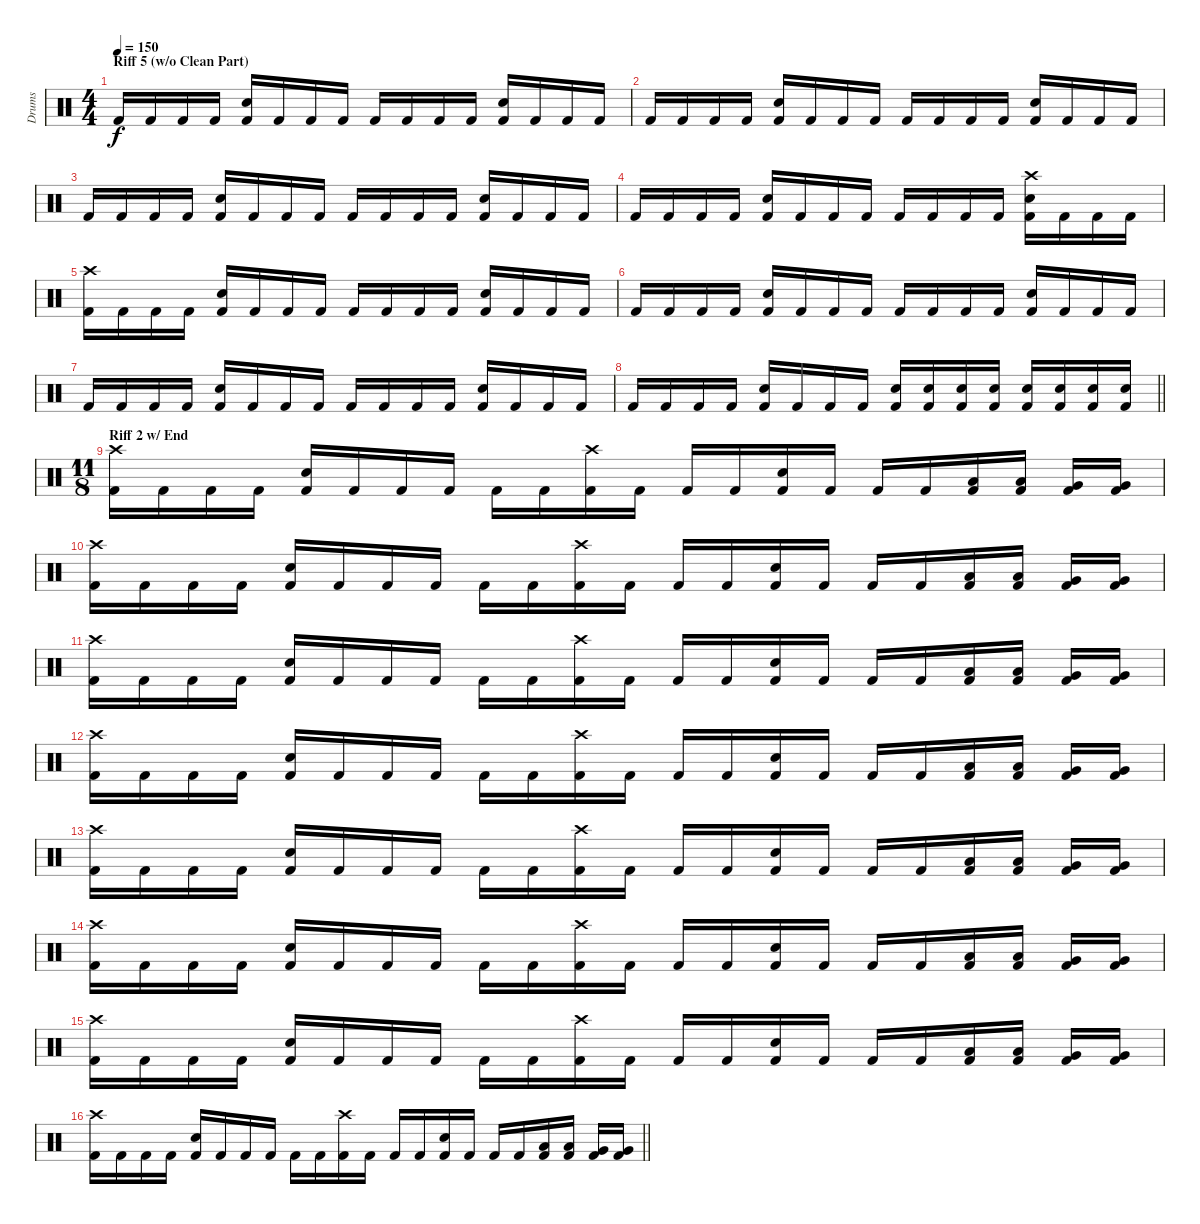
\track ("Drums" "Drums") {instrument percussion}
\staff {score}
\articulation defaults
\ts (4 4)
\section ("" "Riff 5 (w/o Clean Part)")
\tempo 150
\clef neutral
\ks c "Kick (hit) 2".16{dy f} "Kick (hit) 2".16 "Kick (hit) 2".16 "Kick (hit) 2".16
("Snare (hit) 2" "Kick (hit) 2").16 "Kick (hit) 2".16 "Kick (hit) 2".16 "Kick (hit) 2".16 "Kick (hit) 2".16 "Kick (hit) 2".16 "Kick (hit) 2".16 "Kick (hit) 2".16 ("Snare (hit) 2" "Kick (hit) 2").16 "Kick (hit) 2".16 "Kick (hit) 2".16 "Kick (hit) 2".16 |
"Kick (hit) 2".16 "Kick (hit) 2".16 "Kick (hit) 2".16 "Kick (hit) 2".16 ("Snare (hit) 2" "Kick (hit) 2").16 "Kick (hit) 2".16 "Kick (hit) 2".16 "Kick (hit) 2".16 "Kick (hit) 2".16 "Kick (hit) 2".16 "Kick (hit) 2".16 "Kick (hit) 2".16 ("Snare (hit) 2" "Kick (hit) 2").16 "Kick (hit) 2".16 "Kick (hit) 2".16 "Kick (hit) 2".16 |
"Kick (hit) 2".16 "Kick (hit) 2".16 "Kick (hit) 2".16 "Kick (hit) 2".16 ("Snare (hit) 2" "Kick (hit) 2").16 "Kick (hit) 2".16 "Kick (hit) 2".16 "Kick (hit) 2".16 "Kick (hit) 2".16 "Kick (hit) 2".16 "Kick (hit) 2".16 "Kick (hit) 2".16 ("Snare (hit) 2" "Kick (hit) 2").16 "Kick (hit) 2".16 "Kick (hit) 2".16 "Kick (hit) 2".16 |
"Kick (hit) 2".16 "Kick (hit) 2".16 "Kick (hit) 2".16 "Kick (hit) 2".16 ("Snare (hit) 2" "Kick (hit) 2").16 "Kick (hit) 2".16 "Kick (hit) 2".16 "Kick (hit) 2".16 "Kick (hit) 2".16 "Kick (hit) 2".16 "Kick (hit) 2".16 "Kick (hit) 2".16 ("Crash high (hit)" "Snare (hit) 2" "Kick (hit) 2").16 "Kick (hit) 2".16 "Kick (hit) 2".16 "Kick (hit) 2".16 |
("Crash high (hit)" "Kick (hit) 2").16 "Kick (hit) 2".16 "Kick (hit) 2".16 "Kick (hit) 2".16 ("Snare (hit) 2" "Kick (hit) 2").16 "Kick (hit) 2".16 "Kick (hit) 2".16 "Kick (hit) 2".16 "Kick (hit) 2".16 "Kick (hit) 2".16 "Kick (hit) 2".16 "Kick (hit) 2".16 ("Snare (hit) 2" "Kick (hit) 2").16 "Kick (hit) 2".16 "Kick (hit) 2".16 "Kick (hit) 2".16 |
"Kick (hit) 2".16 "Kick (hit) 2".16 "Kick (hit) 2".16 "Kick (hit) 2".16 ("Snare (hit) 2" "Kick (hit) 2").16 "Kick (hit) 2".16 "Kick (hit) 2".16 "Kick (hit) 2".16 "Kick (hit) 2".16 "Kick (hit) 2".16 "Kick (hit) 2".16 "Kick (hit) 2".16 ("Snare (hit) 2" "Kick (hit) 2").16 "Kick (hit) 2".16 "Kick (hit) 2".16 "Kick (hit) 2".16 |
"Kick (hit) 2".16 "Kick (hit) 2".16 "Kick (hit) 2".16 "Kick (hit) 2".16 ("Snare (hit) 2" "Kick (hit) 2").16 "Kick (hit) 2".16 "Kick (hit) 2".16 "Kick (hit) 2".16 "Kick (hit) 2".16 "Kick (hit) 2".16 "Kick (hit) 2".16 "Kick (hit) 2".16 ("Snare (hit) 2" "Kick (hit) 2").16 "Kick (hit) 2".16 "Kick (hit) 2".16 "Kick (hit) 2".16 |
\barLineRight lightlight "Kick (hit) 2".16 "Kick (hit) 2".16 "Kick (hit) 2".16 "Kick (hit) 2".16
("Snare (hit) 2" "Kick (hit) 2").16 "Kick (hit) 2".16 "Kick (hit) 2".16 "Kick (hit) 2".16 ("Snare (hit) 2" "Kick (hit) 2").16 ("Snare (hit) 2" "Kick (hit) 2").16 ("Snare (hit) 2" "Kick (hit) 2").16 ("Snare (hit) 2" "Kick (hit) 2").16 ("Snare (hit) 2" "Kick (hit) 2").16 ("Snare (hit) 2" "Kick (hit) 2").16 ("Snare (hit) 2" "Kick (hit) 2").16 ("Snare (hit) 2" "Kick (hit) 2").16 |
\ts (11 8)
\section ("" "Riff 2 w/ End")
("Crash high (hit)" "Kick (hit) 2").16 "Kick (hit) 2".16 "Kick (hit) 2".16 "Kick (hit) 2".16 ("Snare (hit) 2" "Kick (hit) 2").16 "Kick (hit) 2".16 "Kick (hit) 2".16 "Kick (hit) 2".16 "Kick (hit) 2".16 "Kick (hit) 2".16 ("Crash high (hit)" "Kick (hit) 2").16 "Kick (hit) 2".16 "Kick (hit) 2".16 "Kick (hit) 2".16 ("Snare (hit) 2" "Kick (hit) 2").16 "Kick (hit) 2".16 "Kick (hit) 2".16 "Kick (hit) 2".16 ("Low Tom (hit)" "Kick (hit) 2").16 ("Low Tom (hit)" "Kick (hit) 2").16 ("Very Low Tom (hit)" "Kick (hit) 2").16 ("Very Low Tom (hit)" "Kick (hit) 2").16 |
("Crash high (hit)" "Kick (hit) 2").16 "Kick (hit) 2".16 "Kick (hit) 2".16 "Kick (hit) 2".16 ("Snare (hit) 2" "Kick (hit) 2").16 "Kick (hit) 2".16 "Kick (hit) 2".16 "Kick (hit) 2".16 "Kick (hit) 2".16 "Kick (hit) 2".16 ("Crash high (hit)" "Kick (hit) 2").16 "Kick (hit) 2".16 "Kick (hit) 2".16 "Kick (hit) 2".16 ("Snare (hit) 2" "Kick (hit) 2").16 "Kick (hit) 2".16 "Kick (hit) 2".16 "Kick (hit) 2".16 ("Low Tom (hit)" "Kick (hit) 2").16 ("Low Tom (hit)" "Kick (hit) 2").16 ("Very Low Tom (hit)" "Kick (hit) 2").16 ("Very Low Tom (hit)" "Kick (hit) 2").16 |
("Crash high (hit)" "Kick (hit) 2").16 "Kick (hit) 2".16 "Kick (hit) 2".16 "Kick (hit) 2".16 ("Snare (hit) 2" "Kick (hit) 2").16 "Kick (hit) 2".16 "Kick (hit) 2".16 "Kick (hit) 2".16 "Kick (hit) 2".16 "Kick (hit) 2".16 ("Crash high (hit)" "Kick (hit) 2").16 "Kick (hit) 2".16 "Kick (hit) 2".16 "Kick (hit) 2".16 ("Snare (hit) 2" "Kick (hit) 2").16 "Kick (hit) 2".16 "Kick (hit) 2".16 "Kick (hit) 2".16 ("Low Tom (hit)" "Kick (hit) 2").16 ("Low Tom (hit)" "Kick (hit) 2").16 ("Very Low Tom (hit)" "Kick (hit) 2").16 ("Very Low Tom (hit)" "Kick (hit) 2").16 |
("Crash high (hit)" "Kick (hit) 2").16 "Kick (hit) 2".16 "Kick (hit) 2".16 "Kick (hit) 2".16 ("Snare (hit) 2" "Kick (hit) 2").16 "Kick (hit) 2".16 "Kick (hit) 2".16 "Kick (hit) 2".16 "Kick (hit) 2".16 "Kick (hit) 2".16 ("Crash high (hit)" "Kick (hit) 2").16 "Kick (hit) 2".16 "Kick (hit) 2".16 "Kick (hit) 2".16 ("Snare (hit) 2" "Kick (hit) 2").16 "Kick (hit) 2".16 "Kick (hit) 2".16 "Kick (hit) 2".16 ("Low Tom (hit)" "Kick (hit) 2").16 ("Low Tom (hit)" "Kick (hit) 2").16 ("Very Low Tom (hit)" "Kick (hit) 2").16 ("Very Low Tom (hit)" "Kick (hit) 2").16 |
("Crash high (hit)" "Kick (hit) 2").16 "Kick (hit) 2".16 "Kick (hit) 2".16 "Kick (hit) 2".16 ("Snare (hit) 2" "Kick (hit) 2").16 "Kick (hit) 2".16 "Kick (hit) 2".16 "Kick (hit) 2".16 "Kick (hit) 2".16 "Kick (hit) 2".16 ("Crash high (hit)" "Kick (hit) 2").16 "Kick (hit) 2".16 "Kick (hit) 2".16 "Kick (hit) 2".16 ("Snare (hit) 2" "Kick (hit) 2").16 "Kick (hit) 2".16 "Kick (hit) 2".16 "Kick (hit) 2".16 ("Low Tom (hit)" "Kick (hit) 2").16 ("Low Tom (hit)" "Kick (hit) 2").16 ("Very Low Tom (hit)" "Kick (hit) 2").16 ("Very Low Tom (hit)" "Kick (hit) 2").16 |
("Crash high (hit)" "Kick (hit) 2").16 "Kick (hit) 2".16 "Kick (hit) 2".16 "Kick (hit) 2".16 ("Snare (hit) 2" "Kick (hit) 2").16 "Kick (hit) 2".16 "Kick (hit) 2".16 "Kick (hit) 2".16 "Kick (hit) 2".16 "Kick (hit) 2".16 ("Crash high (hit)" "Kick (hit) 2").16 "Kick (hit) 2".16 "Kick (hit) 2".16 "Kick (hit) 2".16 ("Snare (hit) 2" "Kick (hit) 2").16 "Kick (hit) 2".16 "Kick (hit) 2".16 "Kick (hit) 2".16 ("Low Tom (hit)" "Kick (hit) 2").16 ("Low Tom (hit)" "Kick (hit) 2").16 ("Very Low Tom (hit)" "Kick (hit) 2").16 ("Very Low Tom (hit)" "Kick (hit) 2").16 |
("Crash high (hit)" "Kick (hit) 2").16 "Kick (hit) 2".16 "Kick (hit) 2".16 "Kick (hit) 2".16 ("Snare (hit) 2" "Kick (hit) 2").16 "Kick (hit) 2".16 "Kick (hit) 2".16 "Kick (hit) 2".16 "Kick (hit) 2".16 "Kick (hit) 2".16 ("Crash high (hit)" "Kick (hit) 2").16 "Kick (hit) 2".16 "Kick (hit) 2".16 "Kick (hit) 2".16 ("Snare (hit) 2" "Kick (hit) 2").16 "Kick (hit) 2".16 "Kick (hit) 2".16 "Kick (hit) 2".16 ("Low Tom (hit)" "Kick (hit) 2").16 ("Low Tom (hit)" "Kick (hit) 2").16 ("Very Low Tom (hit)" "Kick (hit) 2").16 ("Very Low Tom (hit)" "Kick (hit) 2").16 |
\barLineRight lightlight
("Crash high (hit)" "Kick (hit) 2").16 "Kick (hit) 2".16 "Kick (hit) 2".16 "Kick (hit) 2".16 ("Snare (hit) 2" "Kick (hit) 2").16 "Kick (hit) 2".16 "Kick (hit) 2".16 "Kick (hit) 2".16 "Kick (hit) 2".16 "Kick (hit) 2".16 ("Crash high (hit)" "Kick (hit) 2").16 "Kick (hit) 2".16 "Kick (hit) 2".16 "Kick (hit) 2".16 ("Snare (hit) 2" "Kick (hit) 2").16 "Kick (hit) 2".16 "Kick (hit) 2".16 "Kick (hit) 2".16 ("Low Tom (hit)" "Kick (hit) 2").16 ("Low Tom (hit)" "Kick (hit) 2").16 ("Very Low Tom (hit)" "Kick (hit) 2").16 ("Very Low Tom (hit)" "Kick (hit) 2").16
